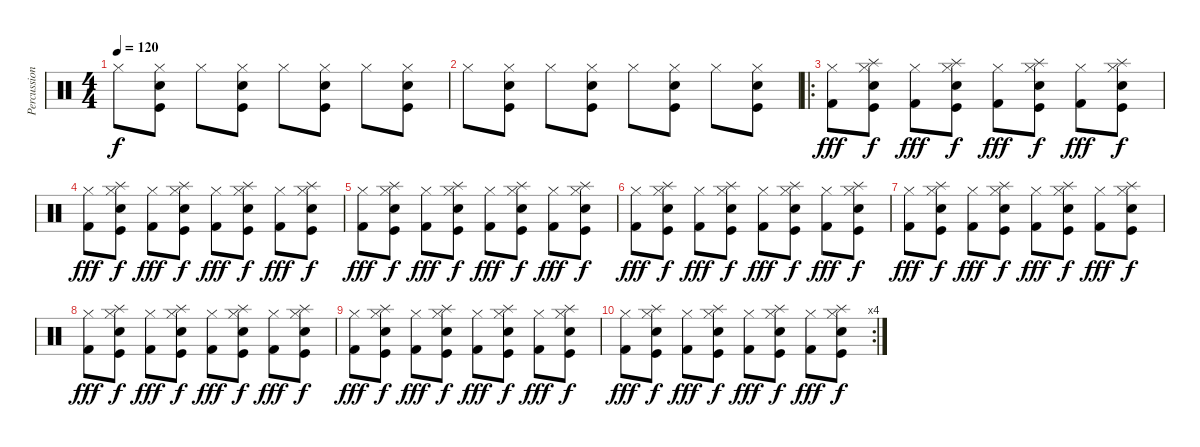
\track ("Percussion-Alex" "Percussion") {instrument percussion}
\staff {score}
\articulation defaults
\ts (4 4)
\tempo 120
\clef neutral
\ks c "Hi-Hat (closed)".8{dy f}
("Snare (hit) 2" "Hi-Hat (closed)" "Kick (hit)").8 "Hi-Hat (closed)".8 ("Snare (hit) 2" "Hi-Hat (closed)" "Kick (hit)").8 "Hi-Hat (closed)".8 ("Snare (hit) 2" "Hi-Hat (closed)" "Kick (hit)").8 "Hi-Hat (closed)".8 ("Snare (hit) 2" "Hi-Hat (closed)" "Kick (hit)").8 |
"Hi-Hat (closed)".8 ("Snare (hit) 2" "Hi-Hat (closed)" "Kick (hit)").8 "Hi-Hat (closed)".8 ("Snare (hit) 2" "Hi-Hat (closed)" "Kick (hit)").8 "Hi-Hat (closed)".8 ("Snare (hit) 2" "Hi-Hat (closed)" "Kick (hit)").8 "Hi-Hat (closed)".8 ("Snare (hit) 2" "Hi-Hat (closed)" "Kick (hit)").8 |
\ro
("Hi-Hat (closed)" "Kick (hit) 2").8{dy fff} ("Splash (hit)" "Snare (hit) 2" "Hi-Hat (closed)" "Kick (hit)").8{dy f} ("Hi-Hat (closed)" "Kick (hit) 2").8{dy fff} ("Splash (hit)" "Snare (hit) 2" "Hi-Hat (closed)" "Kick (hit)").8{dy f} ("Hi-Hat (closed)" "Kick (hit) 2").8{dy fff} ("Splash (hit)" "Snare (hit) 2" "Hi-Hat (closed)" "Kick (hit)").8{dy f} ("Hi-Hat (closed)" "Kick (hit) 2").8{dy fff} ("Splash (hit)" "Snare (hit) 2" "Hi-Hat (closed)" "Kick (hit)").8{dy f} |
("Hi-Hat (closed)" "Kick (hit) 2").8{dy fff} ("Splash (hit)" "Snare (hit) 2" "Hi-Hat (closed)" "Kick (hit)").8{dy f} ("Hi-Hat (closed)" "Kick (hit) 2").8{dy fff} ("Splash (hit)" "Snare (hit) 2" "Hi-Hat (closed)" "Kick (hit)").8{dy f} ("Hi-Hat (closed)" "Kick (hit) 2").8{dy fff} ("Splash (hit)" "Snare (hit) 2" "Hi-Hat (closed)" "Kick (hit)").8{dy f} ("Hi-Hat (closed)" "Kick (hit) 2").8{dy fff} ("Splash (hit)" "Snare (hit) 2" "Hi-Hat (closed)" "Kick (hit)").8{dy f} |
("Hi-Hat (closed)" "Kick (hit) 2").8{dy fff} ("Splash (hit)" "Snare (hit) 2" "Hi-Hat (closed)" "Kick (hit)").8{dy f} ("Hi-Hat (closed)" "Kick (hit) 2").8{dy fff} ("Splash (hit)" "Snare (hit) 2" "Hi-Hat (closed)" "Kick (hit)").8{dy f} ("Hi-Hat (closed)" "Kick (hit) 2").8{dy fff} ("Splash (hit)" "Snare (hit) 2" "Hi-Hat (closed)" "Kick (hit)").8{dy f} ("Hi-Hat (closed)" "Kick (hit) 2").8{dy fff} ("Splash (hit)" "Snare (hit) 2" "Hi-Hat (closed)" "Kick (hit)").8{dy f} |
("Hi-Hat (closed)" "Kick (hit) 2").8{dy fff} ("Splash (hit)" "Snare (hit) 2" "Hi-Hat (closed)" "Kick (hit)").8{dy f} ("Hi-Hat (closed)" "Kick (hit) 2").8{dy fff} ("Splash (hit)" "Snare (hit) 2" "Hi-Hat (closed)" "Kick (hit)").8{dy f} ("Hi-Hat (closed)" "Kick (hit) 2").8{dy fff} ("Splash (hit)" "Snare (hit) 2" "Hi-Hat (closed)" "Kick (hit)").8{dy f} ("Hi-Hat (closed)" "Kick (hit) 2").8{dy fff} ("Splash (hit)" "Snare (hit) 2" "Hi-Hat (closed)" "Kick (hit)").8{dy f} |
("Hi-Hat (closed)" "Kick (hit) 2").8{dy fff} ("Splash (hit)" "Snare (hit) 2" "Hi-Hat (closed)" "Kick (hit)").8{dy f} ("Hi-Hat (closed)" "Kick (hit) 2").8{dy fff} ("Splash (hit)" "Snare (hit) 2" "Hi-Hat (closed)" "Kick (hit)").8{dy f} ("Hi-Hat (closed)" "Kick (hit) 2").8{dy fff} ("Splash (hit)" "Snare (hit) 2" "Hi-Hat (closed)" "Kick (hit)").8{dy f} ("Hi-Hat (closed)" "Kick (hit) 2").8{dy fff} ("Splash (hit)" "Snare (hit) 2" "Hi-Hat (closed)" "Kick (hit)").8{dy f} |
("Hi-Hat (closed)" "Kick (hit) 2").8{dy fff} ("Splash (hit)" "Snare (hit) 2" "Hi-Hat (closed)" "Kick (hit)").8{dy f} ("Hi-Hat (closed)" "Kick (hit) 2").8{dy fff} ("Splash (hit)" "Snare (hit) 2" "Hi-Hat (closed)" "Kick (hit)").8{dy f} ("Hi-Hat (closed)" "Kick (hit) 2").8{dy fff} ("Splash (hit)" "Snare (hit) 2" "Hi-Hat (closed)" "Kick (hit)").8{dy f} ("Hi-Hat (closed)" "Kick (hit) 2").8{dy fff} ("Splash (hit)" "Snare (hit) 2" "Hi-Hat (closed)" "Kick (hit)").8{dy f} |
("Hi-Hat (closed)" "Kick (hit) 2").8{dy fff} ("Splash (hit)" "Snare (hit) 2" "Hi-Hat (closed)" "Kick (hit)").8{dy f} ("Hi-Hat (closed)" "Kick (hit) 2").8{dy fff} ("Splash (hit)" "Snare (hit) 2" "Hi-Hat (closed)" "Kick (hit)").8{dy f} ("Hi-Hat (closed)" "Kick (hit) 2").8{dy fff} ("Splash (hit)" "Snare (hit) 2" "Hi-Hat (closed)" "Kick (hit)").8{dy f} ("Hi-Hat (closed)" "Kick (hit) 2").8{dy fff} ("Splash (hit)" "Snare (hit) 2" "Hi-Hat (closed)" "Kick (hit)").8{dy f} |
\rc 4
("Hi-Hat (closed)" "Kick (hit) 2").8{dy fff} ("Splash (hit)" "Snare (hit) 2" "Hi-Hat (closed)" "Kick (hit)").8{dy f} ("Hi-Hat (closed)" "Kick (hit) 2").8{dy fff} ("Splash (hit)" "Snare (hit) 2" "Hi-Hat (closed)" "Kick (hit)").8{dy f} ("Hi-Hat (closed)" "Kick (hit) 2").8{dy fff} ("Splash (hit)" "Snare (hit) 2" "Hi-Hat (closed)" "Kick (hit)").8{dy f} ("Hi-Hat (closed)" "Kick (hit) 2").8{dy fff} ("Splash (hit)" "Snare (hit) 2" "Hi-Hat (closed)" "Kick (hit)").8{dy f}
